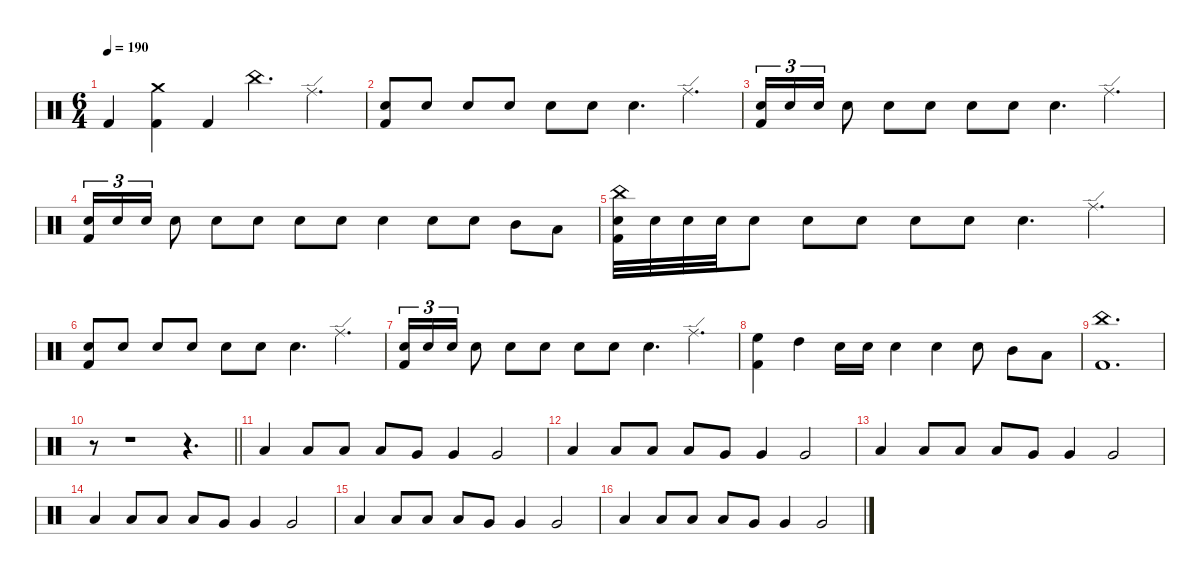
\defaultSystemsLayout 4
\hideDynamics
\bracketExtendMode nobrackets
\singleTrackTrackNamePolicy hidden
\multiTrackTrackNamePolicy hidden
\firstSystemTrackNameMode fullname
\firstSystemTrackNameOrientation horizontal
\otherSystemsTrackNameOrientation horizontal
\track ("Drums" "drm.") {instrument percussion}
\staff {score}
\articulation defaults
\ts (6 4)
\tempo 190
\clef neutral
\ks c "Kick (hit) 2".4{dy mf beam Up}
("Crash medium (hit)" "Kick (hit) 2").4{beam Down} "Kick (hit) 2".4{beam Up} "China (hit)".4{d beam Down} "Ride (edge)".4{d dy p beam Down} |
("Snare (hit) 2" "Kick (hit) 2").8{beam Up} "Snare (hit) 2".8{beam Up} "Snare (hit) 2".8{beam Up} "Snare (hit) 2".8{dy pp beam Down} "Snare (hit) 2".8{dy p beam Down} "Snare (hit) 2".8{beam Down} "Snare (hit) 2".4{d dy mf beam Down} "Ride (edge)".4{d dy p beam Down} |
("Snare (hit) 2" "Kick (hit) 2").16{tu (3 2) dy pp beam Up} "Snare (hit) 2".16{tu (3 2) beam Up} "Snare (hit) 2".16{tu (3 2) dy p beam Up} "Snare (hit) 2".8{beam Down} "Snare (hit) 2".8{beam Down} "Snare (hit) 2".8{dy pp beam Down} "Snare (hit) 2".8{dy p beam Down} "Snare (hit) 2".8{beam Down} "Snare (hit) 2".4{d dy mf beam Down} "Ride (edge)".4{d dy p beam Down} |
("Snare (hit) 2" "Kick (hit) 2").16{tu (3 2) dy pp beam Up} "Snare (hit) 2".16{tu (3 2) beam Up} "Snare (hit) 2".16{tu (3 2) dy p beam Up} "Snare (hit) 2".8{beam Down} "Snare (hit) 2".8{beam Down} "Snare (hit) 2".8{dy pp beam Down} "Snare (hit) 2".8{dy p beam Down} "Snare (hit) 2".8{beam Down} "Snare (hit) 2".4{dy mp beam Down} "Snare (hit) 2".8{beam Down} "Snare (hit) 2".8{dy p beam Down} "Mid Tom (hit)".8{dy mf beam Down} "Low Tom (hit)".8{beam Down} |
("China (hit)" "Snare (hit) 2" "Kick (hit) 2").32{dy mp beam Down} "Snare (hit) 2".32{dy pp beam Down} "Snare (hit) 2".32{dy p beam Down} "Snare (hit) 2".32{beam Down} "Snare (hit) 2".8{beam Down} "Snare (hit) 2".8{beam Down} "Snare (hit) 2".8{dy pp beam Down} "Snare (hit) 2".8{dy p beam Down} "Snare (hit) 2".8{beam Down} "Snare (hit) 2".4{d dy mf beam Down} "Ride (edge)".4{d dy p beam Down} |
("Snare (hit) 2" "Kick (hit) 2").8{beam Up} "Snare (hit) 2".8{beam Up} "Snare (hit) 2".8{beam Up} "Snare (hit) 2".8{dy pp beam Down} "Snare (hit) 2".8{dy p beam Down} "Snare (hit) 2".8{beam Down} "Snare (hit) 2".4{d dy mp beam Down} "Ride (edge)".4{d dy p beam Down} |
("Snare (hit) 2" "Kick (hit) 2").16{tu (3 2) dy pp beam Up} "Snare (hit) 2".16{tu (3 2) beam Up} "Snare (hit) 2".16{tu (3 2) dy p beam Up} "Snare (hit) 2".8{beam Down} "Snare (hit) 2".8{beam Down} "Snare (hit) 2".8{dy pp beam Down} "Snare (hit) 2".8{dy p beam Down} "Snare (hit) 2".8{beam Down} "Snare (hit) 2".4{d dy mf beam Down} "Ride (edge)".4{d dy p beam Down} |
("High Floor Tom (hit)" "Kick (hit) 2").4{dy mf beam Down} "High Tom (hit)".4{dy f beam Down} "Snare (hit) 2".16{dy p beam Down} "Snare (hit) 2".16{beam Down} "Snare (hit) 2".4{dy mp beam Down} "Snare (hit) 2".4{dy mf beam Down} "Snare (hit) 2".8{beam Down} "Mid Tom (hit)".8{beam Down} "Low Tom (hit)".8{beam Down} |
("China (hit)" "Kick (hit) 2").1{d dy f beam Down} |
\barLineRight lightlight
r.8{beam Down} r.1{beam Down} r.4{d beam Down} |
"Low Tom (hit)".4{dy mf beam Up} "Low Tom (hit)".8{dy mp beam Up} "Low Tom (hit)".8{beam Up} "Low Tom (hit)".8{beam Up} "Very Low Tom (hit)".8{beam Up} "Very Low Tom (hit)".4{beam Up} "Very Low Tom (hit)".2{dy mf beam Up} |
"Low Tom (hit)".4{beam Up} "Low Tom (hit)".8{dy mp beam Up} "Low Tom (hit)".8{beam Up} "Low Tom (hit)".8{beam Up} "Very Low Tom (hit)".8{beam Up} "Very Low Tom (hit)".4{beam Up} "Very Low Tom (hit)".2{dy mf beam Up} |
"Low Tom (hit)".4{beam Up} "Low Tom (hit)".8{dy mp beam Up} "Low Tom (hit)".8{beam Up} "Low Tom (hit)".8{beam Up} "Very Low Tom (hit)".8{beam Up} "Very Low Tom (hit)".4{beam Up} "Very Low Tom (hit)".2{dy mf beam Up} |
"Low Tom (hit)".4{beam Up} "Low Tom (hit)".8{dy mp beam Up} "Low Tom (hit)".8{beam Up} "Low Tom (hit)".8{beam Up} "Very Low Tom (hit)".8{beam Up} "Very Low Tom (hit)".4{beam Up} "Very Low Tom (hit)".2{dy mf beam Up} |
"Low Tom (hit)".4{beam Up} "Low Tom (hit)".8{dy mp beam Up} "Low Tom (hit)".8{beam Up} "Low Tom (hit)".8{beam Up} "Very Low Tom (hit)".8{beam Up} "Very Low Tom (hit)".4{beam Up} "Very Low Tom (hit)".2{dy mf beam Up} |
"Low Tom (hit)".4{beam Up} "Low Tom (hit)".8{dy mp beam Up} "Low Tom (hit)".8{beam Up} "Low Tom (hit)".8{beam Up} "Very Low Tom (hit)".8{beam Up} "Very Low Tom (hit)".4{beam Up} "Very Low Tom (hit)".2{dy mf beam Up}
